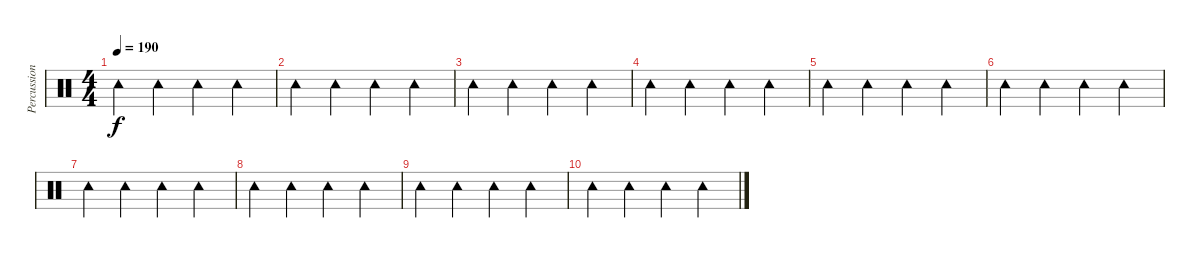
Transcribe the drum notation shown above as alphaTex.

\track ("Percussion" "Percussion") {instrument percussion}
\staff {score}
\articulation defaults
\ts (4 4)
\tempo 190
\clef neutral
\ks c "Tambourine (hit)".4{dy f} "Tambourine (hit)".4 "Tambourine (hit)".4 "Tambourine (hit)".4
|
"Tambourine (hit)".4 "Tambourine (hit)".4 "Tambourine (hit)".4 "Tambourine (hit)".4 |
"Tambourine (hit)".4 "Tambourine (hit)".4 "Tambourine (hit)".4 "Tambourine (hit)".4 |
"Tambourine (hit)".4 "Tambourine (hit)".4 "Tambourine (hit)".4 "Tambourine (hit)".4 |
"Tambourine (hit)".4 "Tambourine (hit)".4 "Tambourine (hit)".4 "Tambourine (hit)".4 |
"Tambourine (hit)".4 "Tambourine (hit)".4 "Tambourine (hit)".4 "Tambourine (hit)".4 |
"Tambourine (hit)".4 "Tambourine (hit)".4 "Tambourine (hit)".4 "Tambourine (hit)".4 |
"Tambourine (hit)".4 "Tambourine (hit)".4 "Tambourine (hit)".4 "Tambourine (hit)".4 |
"Tambourine (hit)".4 "Tambourine (hit)".4 "Tambourine (hit)".4 "Tambourine (hit)".4 |
"Tambourine (hit)".4 "Tambourine (hit)".4 "Tambourine (hit)".4 "Tambourine (hit)".4
